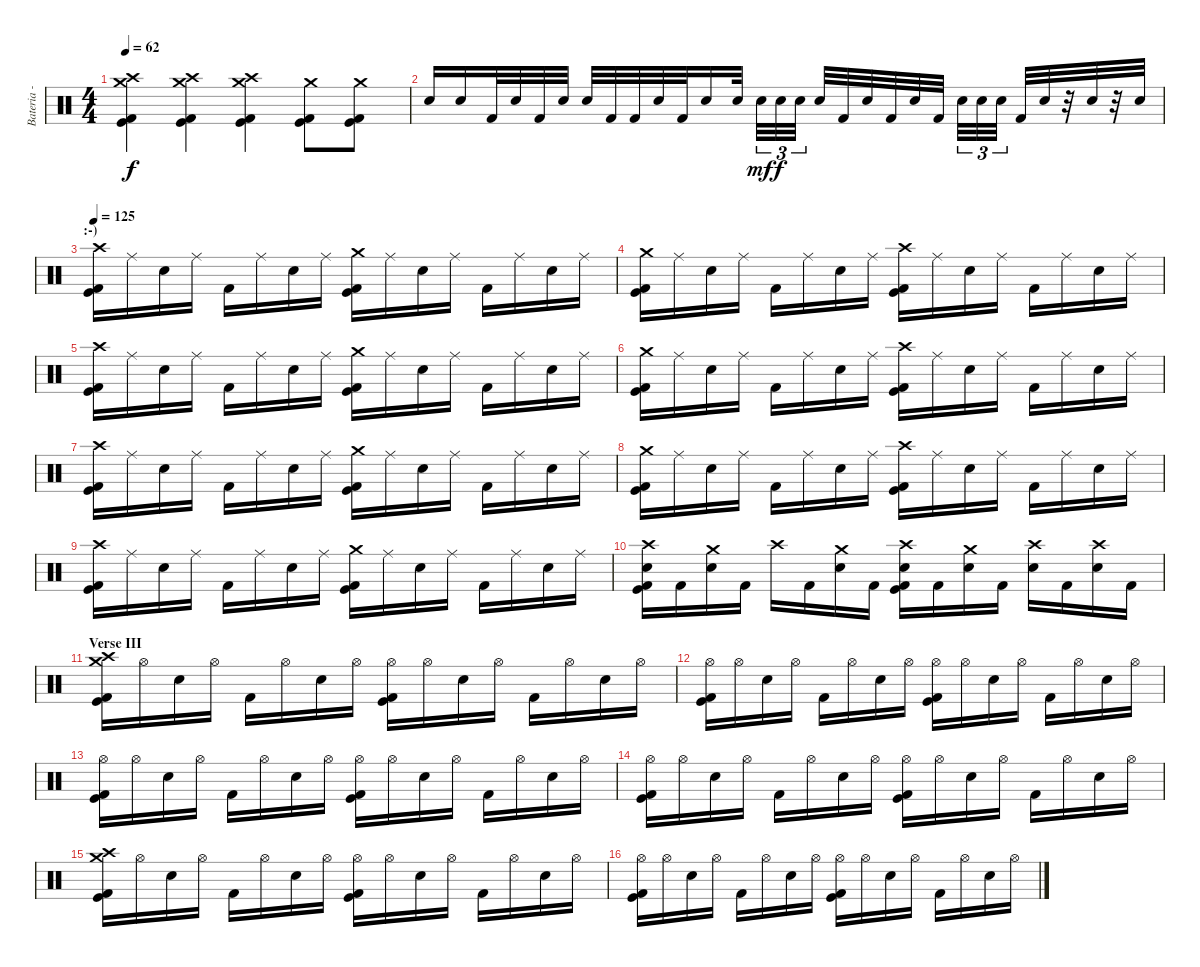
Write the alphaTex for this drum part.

\track ("Bateria - Drums" "Bateria - ") {instrument percussion}
\staff {score}
\articulation defaults
\ts (4 4)
\tempo 62
\clef neutral
\ks c
("Crash medium (hit)" "Crash high (hit)" "Kick (hit)" "Kick (hit) 2").4{dy f} ("Crash high (hit)" "Crash medium (hit)" "Kick (hit)" "Kick (hit) 2").4 ("Crash medium (hit)" "Crash high (hit)" "Kick (hit)" "Kick (hit) 2").4 ("Crash medium (hit)" "Kick (hit)" "Kick (hit) 2").8 ("Crash medium (hit)" "Kick (hit)" "Kick (hit) 2").8 |
"Electric Snare (hit)".16 "Electric Snare (hit)".16 "Kick (hit) 2".32 "Electric Snare (hit)".32 "Kick (hit) 2".32 "Electric Snare (hit)".32 "Electric Snare (hit)".32 "Kick (hit) 2".32 "Kick (hit) 2".32 "Electric Snare (hit)".32 "Kick (hit) 2".32 "Electric Snare (hit)".16 "Electric Snare (hit)".32 "Electric Snare (hit)".32{tu (3 2) dy mf} "Electric Snare (hit)".32{tu (3 2) dy f} "Electric Snare (hit)".32{tu (3 2)} "Electric Snare (hit)".32 "Kick (hit) 2".32 "Electric Snare (hit)".32 "Kick (hit) 2".32 "Electric Snare (hit)".32 "Kick (hit) 2".32 "Electric Snare (hit)".32{tu (3 2)} "Electric Snare (hit)".32{tu (3 2)} "Electric Snare (hit)".32{tu (3 2)} "Kick (hit) 2".32 "Electric Snare (hit)".32 r.32 "Electric Snare (hit)".32 r.32 "Electric Snare (hit)".32 |
\section ("" ":-)")
\tempo 125
("Crash high (hit)" "Kick (hit)" "Kick (hit) 2").16 "Ride (middle)".16 "Electric Snare (hit)".16 "Ride (middle)".16 "Kick (hit) 2".16 "Ride (middle)".16 "Electric Snare (hit)".16 "Ride (middle)".16 ("Crash medium (hit)" "Kick (hit)" "Kick (hit) 2").16 "Ride (middle)".16 "Electric Snare (hit)".16 "Ride (middle)".16 "Kick (hit) 2".16 "Ride (middle)".16 "Electric Snare (hit)".16 "Ride (middle)".16 |
("Crash medium (hit)" "Kick (hit)" "Kick (hit) 2").16 "Ride (middle)".16 "Electric Snare (hit)".16 "Ride (middle)".16 "Kick (hit) 2".16 "Ride (middle)".16 "Electric Snare (hit)".16 "Ride (middle)".16 ("Crash high (hit)" "Kick (hit)" "Kick (hit) 2").16 "Ride (middle)".16 "Electric Snare (hit)".16 "Ride (middle)".16 "Kick (hit) 2".16 "Ride (middle)".16 "Electric Snare (hit)".16 "Ride (middle)".16 |
("Crash high (hit)" "Kick (hit)" "Kick (hit) 2").16 "Ride (middle)".16 "Electric Snare (hit)".16 "Ride (middle)".16 "Kick (hit) 2".16 "Ride (middle)".16 "Electric Snare (hit)".16 "Ride (middle)".16 ("Crash medium (hit)" "Kick (hit)" "Kick (hit) 2").16 "Ride (middle)".16 "Electric Snare (hit)".16 "Ride (middle)".16 "Kick (hit) 2".16 "Ride (middle)".16 "Electric Snare (hit)".16 "Ride (middle)".16 |
("Crash medium (hit)" "Kick (hit)" "Kick (hit) 2").16 "Ride (middle)".16 "Electric Snare (hit)".16 "Ride (middle)".16 "Kick (hit) 2".16 "Ride (middle)".16 "Electric Snare (hit)".16 "Ride (middle)".16 ("Crash high (hit)" "Kick (hit)" "Kick (hit) 2").16 "Ride (middle)".16 "Electric Snare (hit)".16 "Ride (middle)".16 "Kick (hit) 2".16 "Ride (middle)".16 "Electric Snare (hit)".16 "Ride (middle)".16 |
("Crash high (hit)" "Kick (hit)" "Kick (hit) 2").16 "Ride (middle)".16 "Electric Snare (hit)".16 "Ride (middle)".16 "Kick (hit) 2".16 "Ride (middle)".16 "Electric Snare (hit)".16 "Ride (middle)".16 ("Crash medium (hit)" "Kick (hit)" "Kick (hit) 2").16 "Ride (middle)".16 "Electric Snare (hit)".16 "Ride (middle)".16 "Kick (hit) 2".16 "Ride (middle)".16 "Electric Snare (hit)".16 "Ride (middle)".16 |
("Crash medium (hit)" "Kick (hit)" "Kick (hit) 2").16 "Ride (middle)".16 "Electric Snare (hit)".16 "Ride (middle)".16 "Kick (hit) 2".16 "Ride (middle)".16 "Electric Snare (hit)".16 "Ride (middle)".16 ("Crash high (hit)" "Kick (hit)" "Kick (hit) 2").16 "Ride (middle)".16 "Electric Snare (hit)".16 "Ride (middle)".16 "Kick (hit) 2".16 "Ride (middle)".16 "Electric Snare (hit)".16 "Ride (middle)".16 |
("Crash high (hit)" "Kick (hit)" "Kick (hit) 2").16 "Ride (middle)".16 "Electric Snare (hit)".16 "Ride (middle)".16 "Kick (hit) 2".16 "Ride (middle)".16 "Electric Snare (hit)".16 "Ride (middle)".16 ("Crash medium (hit)" "Kick (hit)" "Kick (hit) 2").16 "Ride (middle)".16 "Electric Snare (hit)".16 "Ride (middle)".16 "Kick (hit) 2".16 "Ride (middle)".16 "Electric Snare (hit)".16 "Ride (middle)".16 |
("Crash high (hit)" "Snare (hit) 2" "Kick (hit)" "Kick (hit) 2").16 "Kick (hit) 2".16 ("Crash medium (hit)" "Snare (hit) 2").16 "Kick (hit) 2".16 "Crash high (hit)".16 "Kick (hit) 2".16 ("Crash medium (hit)" "Snare (hit) 2").16 "Kick (hit) 2".16 ("Crash high (hit)" "Snare (hit) 2" "Kick (hit)" "Kick (hit) 2").16 "Kick (hit) 2".16 ("Crash medium (hit)" "Snare (hit) 2").16 "Kick (hit) 2".16 ("Crash high (hit)" "Electric Snare (hit)").16 "Kick (hit) 2".16 ("Crash high (hit)" "Electric Snare (hit)").16 "Kick (hit) 2".16 |
\section ("" "Verse III")
("Crash high (hit)" "Crash medium (hit)" "Kick (hit)" "Kick (hit) 2").16 "Hi-Hat (open)".16 "Electric Snare (hit)".16 "Hi-Hat (open)".16 "Kick (hit) 2".16 "Hi-Hat (open)".16 "Electric Snare (hit)".16 "Hi-Hat (open)".16 ("Hi-Hat (open)" "Kick (hit)" "Kick (hit) 2").16 "Hi-Hat (open)".16 "Electric Snare (hit)".16 "Hi-Hat (open)".16 "Kick (hit) 2".16 "Hi-Hat (open)".16 "Electric Snare (hit)".16 "Hi-Hat (open)".16 |
("Hi-Hat (open)" "Kick (hit)" "Kick (hit) 2").16 "Hi-Hat (open)".16 "Electric Snare (hit)".16 "Hi-Hat (open)".16 "Kick (hit) 2".16 "Hi-Hat (open)".16 "Electric Snare (hit)".16 "Hi-Hat (open)".16 ("Hi-Hat (open)" "Kick (hit)" "Kick (hit) 2").16 "Hi-Hat (open)".16 "Electric Snare (hit)".16 "Hi-Hat (open)".16 "Kick (hit) 2".16 "Hi-Hat (open)".16 "Electric Snare (hit)".16 "Hi-Hat (open)".16 |
("Hi-Hat (open)" "Kick (hit)" "Kick (hit) 2").16 "Hi-Hat (open)".16 "Electric Snare (hit)".16 "Hi-Hat (open)".16 "Kick (hit) 2".16 "Hi-Hat (open)".16 "Electric Snare (hit)".16 "Hi-Hat (open)".16 ("Hi-Hat (open)" "Kick (hit)" "Kick (hit) 2").16 "Hi-Hat (open)".16 "Electric Snare (hit)".16 "Hi-Hat (open)".16 "Kick (hit) 2".16 "Hi-Hat (open)".16 "Electric Snare (hit)".16 "Hi-Hat (open)".16 |
("Hi-Hat (open)" "Kick (hit)" "Kick (hit) 2").16 "Hi-Hat (open)".16 "Electric Snare (hit)".16 "Hi-Hat (open)".16 "Kick (hit) 2".16 "Hi-Hat (open)".16 "Electric Snare (hit)".16 "Hi-Hat (open)".16 ("Hi-Hat (open)" "Kick (hit)" "Kick (hit) 2").16 "Hi-Hat (open)".16 "Electric Snare (hit)".16 "Hi-Hat (open)".16 "Kick (hit) 2".16 "Hi-Hat (open)".16 "Electric Snare (hit)".16 "Hi-Hat (open)".16 |
("Crash high (hit)" "Crash medium (hit)" "Kick (hit)" "Kick (hit) 2").16 "Hi-Hat (open)".16 "Electric Snare (hit)".16 "Hi-Hat (open)".16 "Kick (hit) 2".16 "Hi-Hat (open)".16 "Electric Snare (hit)".16 "Hi-Hat (open)".16 ("Hi-Hat (open)" "Kick (hit)" "Kick (hit) 2").16 "Hi-Hat (open)".16 "Electric Snare (hit)".16 "Hi-Hat (open)".16 "Kick (hit) 2".16 "Hi-Hat (open)".16 "Electric Snare (hit)".16 "Hi-Hat (open)".16 |
("Hi-Hat (open)" "Kick (hit)" "Kick (hit) 2").16 "Hi-Hat (open)".16 "Electric Snare (hit)".16 "Hi-Hat (open)".16 "Kick (hit) 2".16 "Hi-Hat (open)".16 "Electric Snare (hit)".16 "Hi-Hat (open)".16 ("Hi-Hat (open)" "Kick (hit)" "Kick (hit) 2").16 "Hi-Hat (open)".16 "Electric Snare (hit)".16 "Hi-Hat (open)".16 "Kick (hit) 2".16 "Hi-Hat (open)".16 "Electric Snare (hit)".16 "Hi-Hat (open)".16
